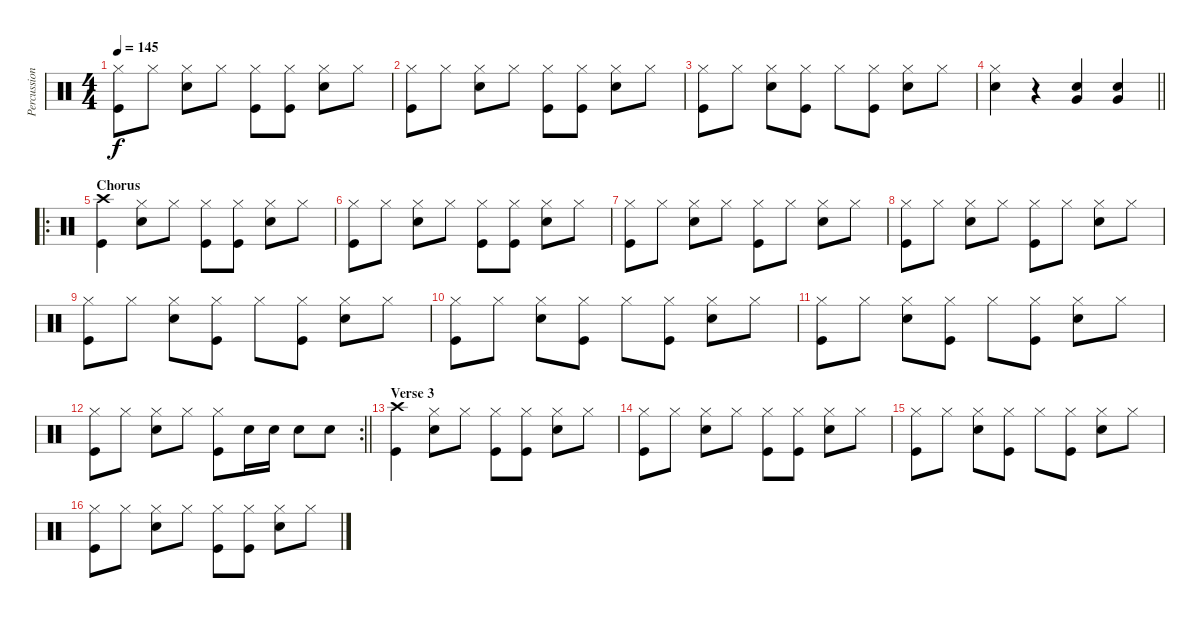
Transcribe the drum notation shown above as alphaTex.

\track ("Percussion" "Percussion") {instrument percussion}
\staff {score}
\articulation defaults
\ts (4 4)
\tempo 145
\clef neutral
\ks c
("Kick (hit)" "Hi-Hat (closed)").8{dy f} "Hi-Hat (closed)".8 ("Hi-Hat (closed)" "Snare (hit) 2").8 "Hi-Hat (closed)".8 ("Kick (hit)" "Hi-Hat (closed)").8 ("Kick (hit)" "Hi-Hat (closed)").8 ("Hi-Hat (closed)" "Snare (hit) 2").8 "Hi-Hat (closed)".8 |
("Kick (hit)" "Hi-Hat (closed)").8 "Hi-Hat (closed)".8 ("Hi-Hat (closed)" "Snare (hit) 2").8 "Hi-Hat (closed)".8 ("Kick (hit)" "Hi-Hat (closed)").8 ("Kick (hit)" "Hi-Hat (closed)").8 ("Hi-Hat (closed)" "Snare (hit) 2").8 "Hi-Hat (closed)".8 |
("Kick (hit)" "Hi-Hat (closed)").8 "Hi-Hat (closed)".8 ("Hi-Hat (closed)" "Snare (hit) 2").8 ("Kick (hit)" "Hi-Hat (closed)").8 "Hi-Hat (closed)".8 ("Kick (hit)" "Hi-Hat (closed)").8 ("Hi-Hat (closed)" "Snare (hit) 2").8 "Hi-Hat (closed)".8 |
\barLineRight lightlight
("Hi-Hat (closed)" "Snare (hit) 2").4 r.4 ("Very Low Tom (hit)" "Snare (hit) 2").4 ("Very Low Tom (hit)" "Snare (hit) 2").4 |
\ro
\section ("" "Chorus")
("Kick (hit)" "Crash high (hit)").4 ("Hi-Hat (closed)" "Snare (hit) 2").8 "Hi-Hat (closed)".8 ("Kick (hit)" "Hi-Hat (closed)").8 ("Kick (hit)" "Hi-Hat (closed)").8 ("Hi-Hat (closed)" "Snare (hit) 2").8 "Hi-Hat (closed)".8 |
("Kick (hit)" "Hi-Hat (closed)").8 "Hi-Hat (closed)".8 ("Hi-Hat (closed)" "Snare (hit) 2").8 "Hi-Hat (closed)".8 ("Kick (hit)" "Hi-Hat (closed)").8 ("Kick (hit)" "Hi-Hat (closed)").8 ("Hi-Hat (closed)" "Snare (hit) 2").8 "Hi-Hat (closed)".8 |
("Kick (hit)" "Hi-Hat (closed)").8 "Hi-Hat (closed)".8 ("Hi-Hat (closed)" "Snare (hit) 2").8 "Hi-Hat (closed)".8 ("Kick (hit)" "Hi-Hat (closed)").8 "Hi-Hat (closed)".8 ("Hi-Hat (closed)" "Snare (hit) 2").8 "Hi-Hat (closed)".8 |
("Kick (hit)" "Hi-Hat (closed)").8 "Hi-Hat (closed)".8 ("Hi-Hat (closed)" "Snare (hit) 2").8 "Hi-Hat (closed)".8 ("Kick (hit)" "Hi-Hat (closed)").8 "Hi-Hat (closed)".8 ("Hi-Hat (closed)" "Snare (hit) 2").8 "Hi-Hat (closed)".8 |
("Kick (hit)" "Hi-Hat (closed)").8 "Hi-Hat (closed)".8 ("Hi-Hat (closed)" "Snare (hit) 2").8 ("Kick (hit)" "Hi-Hat (closed)").8 "Hi-Hat (closed)".8 ("Kick (hit)" "Hi-Hat (closed)").8 ("Hi-Hat (closed)" "Snare (hit) 2").8 "Hi-Hat (closed)".8 |
("Kick (hit)" "Hi-Hat (closed)").8 "Hi-Hat (closed)".8 ("Hi-Hat (closed)" "Snare (hit) 2").8 ("Kick (hit)" "Hi-Hat (closed)").8 "Hi-Hat (closed)".8 ("Kick (hit)" "Hi-Hat (closed)").8 ("Hi-Hat (closed)" "Snare (hit) 2").8 "Hi-Hat (closed)".8 |
("Kick (hit)" "Hi-Hat (closed)").8 "Hi-Hat (closed)".8 ("Hi-Hat (closed)" "Snare (hit) 2").8 ("Kick (hit)" "Hi-Hat (closed)").8 "Hi-Hat (closed)".8 ("Kick (hit)" "Hi-Hat (closed)").8 ("Hi-Hat (closed)" "Snare (hit) 2").8 "Hi-Hat (closed)".8 |
\rc 2
\barLineRight lightlight
("Kick (hit)" "Hi-Hat (closed)").8 "Hi-Hat (closed)".8 ("Hi-Hat (closed)" "Snare (hit) 2").8 "Hi-Hat (closed)".8 ("Kick (hit)" "Hi-Hat (closed)").8 "Snare (hit) 2".16 "Snare (hit) 2".16 "Snare (hit) 2".8 "Snare (hit) 2".8 |
\section ("" "Verse 3")
("Kick (hit)" "Crash high (hit)").4 ("Hi-Hat (closed)" "Snare (hit) 2").8 "Hi-Hat (closed)".8 ("Kick (hit)" "Hi-Hat (closed)").8 ("Kick (hit)" "Hi-Hat (closed)").8 ("Hi-Hat (closed)" "Snare (hit) 2").8 "Hi-Hat (closed)".8 |
("Kick (hit)" "Hi-Hat (closed)").8 "Hi-Hat (closed)".8 ("Hi-Hat (closed)" "Snare (hit) 2").8 "Hi-Hat (closed)".8 ("Kick (hit)" "Hi-Hat (closed)").8 ("Kick (hit)" "Hi-Hat (closed)").8 ("Hi-Hat (closed)" "Snare (hit) 2").8 "Hi-Hat (closed)".8 |
("Kick (hit)" "Hi-Hat (closed)").8 "Hi-Hat (closed)".8 ("Hi-Hat (closed)" "Snare (hit) 2").8 ("Kick (hit)" "Hi-Hat (closed)").8 "Hi-Hat (closed)".8 ("Kick (hit)" "Hi-Hat (closed)").8 ("Hi-Hat (closed)" "Snare (hit) 2").8 "Hi-Hat (closed)".8 |
("Kick (hit)" "Hi-Hat (closed)").8 "Hi-Hat (closed)".8 ("Hi-Hat (closed)" "Snare (hit) 2").8 "Hi-Hat (closed)".8 ("Kick (hit)" "Hi-Hat (closed)").8 ("Kick (hit)" "Hi-Hat (closed)").8 ("Hi-Hat (closed)" "Snare (hit) 2").8 "Hi-Hat (closed)".8
